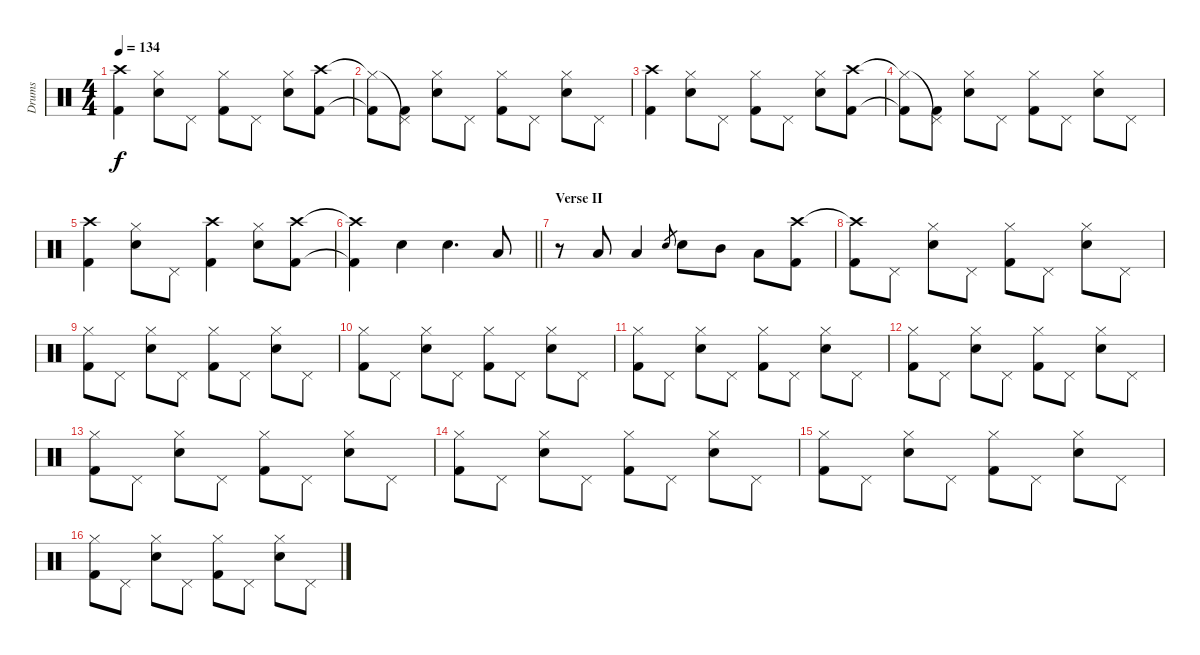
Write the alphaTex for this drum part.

\track ("Drums" "Drums") {instrument percussion}
\staff {score}
\articulation defaults
\ts (4 4)
\tempo 134
\clef neutral
\ks c
("Crash high (hit)" "Kick (hit) 2").4{dy f} ("Hi-Hat (closed)" "Snare (hit) 2").8 "Pedal Hi-Hat (hit)".8 ("Hi-Hat (closed)" "Kick (hit) 2").8 "Pedal Hi-Hat (hit)".8 ("Hi-Hat (closed)" "Snare (hit) 2").8 ("Crash high (hit)" "Kick (hit) 2").8 |
("Hi-Hat (closed)"{t} "Kick (hit) 2"{t}).8 ("Pedal Hi-Hat (hit)"{t} "Kick (hit) 2").8 ("Hi-Hat (closed)" "Snare (hit) 2").8 "Pedal Hi-Hat (hit)".8 ("Hi-Hat (closed)" "Kick (hit) 2").8 "Pedal Hi-Hat (hit)".8 ("Hi-Hat (closed)" "Snare (hit) 2").8 "Pedal Hi-Hat (hit)".8 |
("Crash high (hit)" "Kick (hit) 2").4 ("Hi-Hat (closed)" "Snare (hit) 2").8 "Pedal Hi-Hat (hit)".8 ("Hi-Hat (closed)" "Kick (hit) 2").8 "Pedal Hi-Hat (hit)".8 ("Hi-Hat (closed)" "Snare (hit) 2").8 ("Crash high (hit)" "Kick (hit) 2").8 |
("Hi-Hat (closed)"{t} "Kick (hit) 2"{t}).8 ("Pedal Hi-Hat (hit)"{t} "Kick (hit) 2").8 ("Hi-Hat (closed)" "Snare (hit) 2").8 "Pedal Hi-Hat (hit)".8 ("Hi-Hat (closed)" "Kick (hit) 2").8 "Pedal Hi-Hat (hit)".8 ("Hi-Hat (closed)" "Snare (hit) 2").8 "Pedal Hi-Hat (hit)".8 |
("Crash high (hit)" "Kick (hit) 2").4 ("Hi-Hat (closed)" "Snare (hit) 2").8 "Pedal Hi-Hat (hit)".8 ("Crash high (hit)" "Kick (hit) 2").4 ("Hi-Hat (closed)" "Snare (hit) 2").8 ("Crash high (hit)" "Kick (hit) 2").8 |
\barLineRight lightlight
("Crash high (hit)"{t} "Kick (hit) 2"{t}).4 "Snare (hit) 2".4 "Snare (hit) 2".4{d} "Low Tom (hit)".8 |
\section ("" "Verse II")
r.8 "Low Tom (hit)".8 "Low Tom (hit)".4 "Snare (hit) 2".8{gr} "Snare (hit) 2".8 "Mid Tom (hit)".8 "Low Tom (hit)".8 ("Crash high (hit)" "Kick (hit) 2").8 |
("Crash high (hit)"{t} "Kick (hit) 2").8 "Pedal Hi-Hat (hit)".8 ("Hi-Hat (closed)" "Snare (hit) 2").8 "Pedal Hi-Hat (hit)".8 ("Hi-Hat (closed)" "Kick (hit) 2").8 "Pedal Hi-Hat (hit)".8 ("Hi-Hat (closed)" "Snare (hit) 2").8 "Pedal Hi-Hat (hit)".8 |
("Hi-Hat (closed)" "Kick (hit) 2").8 "Pedal Hi-Hat (hit)".8 ("Hi-Hat (closed)" "Snare (hit) 2").8 "Pedal Hi-Hat (hit)".8 ("Hi-Hat (closed)" "Kick (hit) 2").8 "Pedal Hi-Hat (hit)".8 ("Hi-Hat (closed)" "Snare (hit) 2").8 "Pedal Hi-Hat (hit)".8 |
("Hi-Hat (closed)" "Kick (hit) 2").8 "Pedal Hi-Hat (hit)".8 ("Hi-Hat (closed)" "Snare (hit) 2").8 "Pedal Hi-Hat (hit)".8 ("Hi-Hat (closed)" "Kick (hit) 2").8 "Pedal Hi-Hat (hit)".8 ("Hi-Hat (closed)" "Snare (hit) 2").8 "Pedal Hi-Hat (hit)".8 |
("Hi-Hat (closed)" "Kick (hit) 2").8 "Pedal Hi-Hat (hit)".8 ("Hi-Hat (closed)" "Snare (hit) 2").8 "Pedal Hi-Hat (hit)".8 ("Hi-Hat (closed)" "Kick (hit) 2").8 "Pedal Hi-Hat (hit)".8 ("Hi-Hat (closed)" "Snare (hit) 2").8 "Pedal Hi-Hat (hit)".8 |
("Hi-Hat (closed)" "Kick (hit) 2").8 "Pedal Hi-Hat (hit)".8 ("Hi-Hat (closed)" "Snare (hit) 2").8 "Pedal Hi-Hat (hit)".8 ("Hi-Hat (closed)" "Kick (hit) 2").8 "Pedal Hi-Hat (hit)".8 ("Hi-Hat (closed)" "Snare (hit) 2").8 "Pedal Hi-Hat (hit)".8 |
("Hi-Hat (closed)" "Kick (hit) 2").8 "Pedal Hi-Hat (hit)".8 ("Hi-Hat (closed)" "Snare (hit) 2").8 "Pedal Hi-Hat (hit)".8 ("Hi-Hat (closed)" "Kick (hit) 2").8 "Pedal Hi-Hat (hit)".8 ("Hi-Hat (closed)" "Snare (hit) 2").8 "Pedal Hi-Hat (hit)".8 |
("Hi-Hat (closed)" "Kick (hit) 2").8 "Pedal Hi-Hat (hit)".8 ("Hi-Hat (closed)" "Snare (hit) 2").8 "Pedal Hi-Hat (hit)".8 ("Hi-Hat (closed)" "Kick (hit) 2").8 "Pedal Hi-Hat (hit)".8 ("Hi-Hat (closed)" "Snare (hit) 2").8 "Pedal Hi-Hat (hit)".8 |
("Hi-Hat (closed)" "Kick (hit) 2").8 "Pedal Hi-Hat (hit)".8 ("Hi-Hat (closed)" "Snare (hit) 2").8 "Pedal Hi-Hat (hit)".8 ("Hi-Hat (closed)" "Kick (hit) 2").8 "Pedal Hi-Hat (hit)".8 ("Hi-Hat (closed)" "Snare (hit) 2").8 "Pedal Hi-Hat (hit)".8 |
("Hi-Hat (closed)" "Kick (hit) 2").8 "Pedal Hi-Hat (hit)".8 ("Hi-Hat (closed)" "Snare (hit) 2").8 "Pedal Hi-Hat (hit)".8 ("Hi-Hat (closed)" "Kick (hit) 2").8 "Pedal Hi-Hat (hit)".8 ("Hi-Hat (closed)" "Snare (hit) 2").8 "Pedal Hi-Hat (hit)".8
